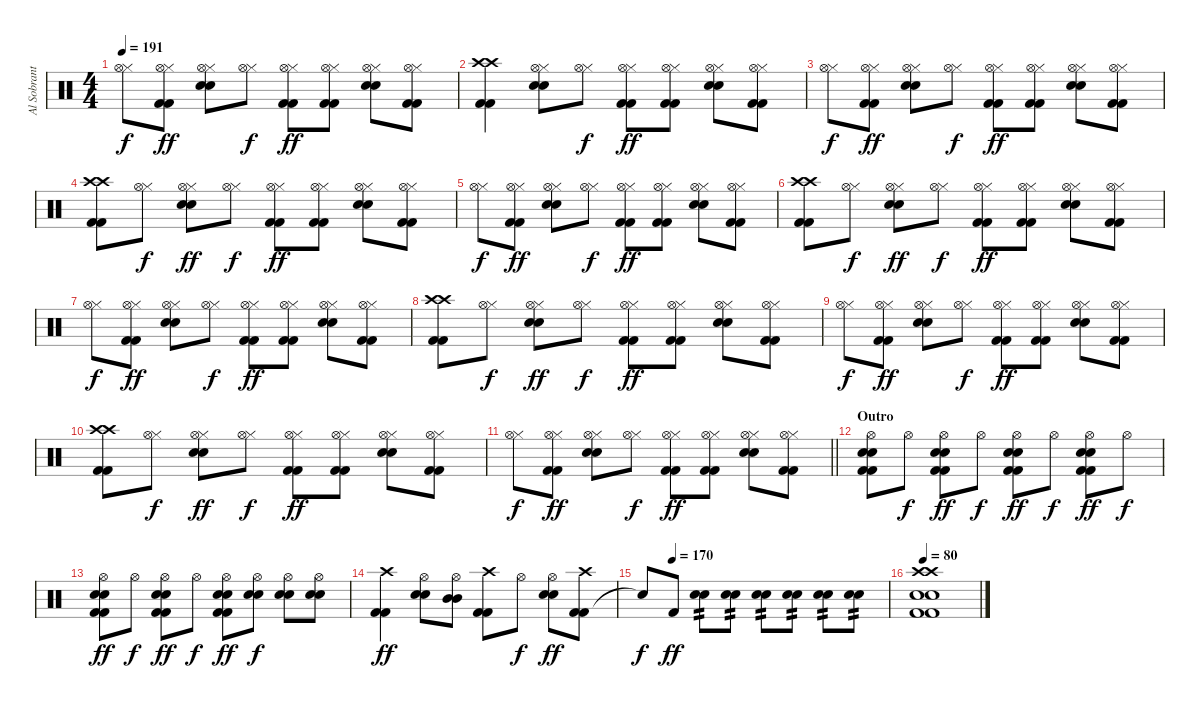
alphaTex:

\track ("Al Sobrante (Drums)" "Al Sobrant") {instrument percussion}
\staff {score}
\articulation defaults
\ts (4 4)
\tempo 191
\clef neutral
\ks c
("Hi-Hat (closed)" "Hi-Hat (open)").8{dy f} ("Kick (hit) 2" "Kick (hit) 2" "Hi-Hat (closed)" "Hi-Hat (open)").8{dy ff} ("Electric Snare (hit)" "Electric Snare (hit)" "Hi-Hat (closed)" "Hi-Hat (open)").8 ("Hi-Hat (closed)" "Hi-Hat (open)").8{dy f} ("Kick (hit) 2" "Kick (hit) 2" "Hi-Hat (closed)" "Hi-Hat (open)").8{dy ff} ("Kick (hit) 2" "Kick (hit) 2" "Hi-Hat (closed)" "Hi-Hat (open)").8 ("Electric Snare (hit)" "Electric Snare (hit)" "Hi-Hat (closed)" "Hi-Hat (open)").8 ("Kick (hit) 2" "Kick (hit) 2" "Hi-Hat (closed)" "Hi-Hat (open)").8 |
("Kick (hit) 2" "Kick (hit) 2" "Crash high (hit)" "Crash high (hit)").4 ("Electric Snare (hit)" "Electric Snare (hit)" "Hi-Hat (closed)" "Hi-Hat (open)").8 ("Hi-Hat (closed)" "Hi-Hat (open)").8{dy f} ("Kick (hit) 2" "Kick (hit) 2" "Hi-Hat (closed)" "Hi-Hat (open)").8{dy ff} ("Kick (hit) 2" "Kick (hit) 2" "Hi-Hat (closed)" "Hi-Hat (open)").8 ("Electric Snare (hit)" "Electric Snare (hit)" "Hi-Hat (closed)" "Hi-Hat (open)").8 ("Kick (hit) 2" "Kick (hit) 2" "Hi-Hat (closed)" "Hi-Hat (open)").8 |
("Hi-Hat (closed)" "Hi-Hat (open)").8{dy f} ("Kick (hit) 2" "Kick (hit) 2" "Hi-Hat (closed)" "Hi-Hat (open)").8{dy ff} ("Electric Snare (hit)" "Electric Snare (hit)" "Hi-Hat (closed)" "Hi-Hat (open)").8 ("Hi-Hat (closed)" "Hi-Hat (open)").8{dy f} ("Kick (hit) 2" "Kick (hit) 2" "Hi-Hat (closed)" "Hi-Hat (open)").8{dy ff} ("Kick (hit) 2" "Kick (hit) 2" "Hi-Hat (closed)" "Hi-Hat (open)").8 ("Electric Snare (hit)" "Electric Snare (hit)" "Hi-Hat (closed)" "Hi-Hat (open)").8 ("Kick (hit) 2" "Kick (hit) 2" "Hi-Hat (closed)" "Hi-Hat (open)").8 |
("Kick (hit) 2" "Kick (hit) 2" "Crash high (hit)" "Crash high (hit)").8 ("Hi-Hat (closed)" "Hi-Hat (open)").8{dy f} ("Electric Snare (hit)" "Electric Snare (hit)" "Hi-Hat (closed)" "Hi-Hat (open)").8{dy ff} ("Hi-Hat (closed)" "Hi-Hat (open)").8{dy f} ("Kick (hit) 2" "Kick (hit) 2" "Hi-Hat (closed)" "Hi-Hat (open)").8{dy ff} ("Kick (hit) 2" "Kick (hit) 2" "Hi-Hat (closed)" "Hi-Hat (open)").8 ("Electric Snare (hit)" "Electric Snare (hit)" "Hi-Hat (closed)" "Hi-Hat (open)").8 ("Kick (hit) 2" "Kick (hit) 2" "Hi-Hat (closed)" "Hi-Hat (open)").8 |
("Hi-Hat (closed)" "Hi-Hat (open)").8{dy f} ("Kick (hit) 2" "Kick (hit) 2" "Hi-Hat (closed)" "Hi-Hat (open)").8{dy ff} ("Electric Snare (hit)" "Electric Snare (hit)" "Hi-Hat (closed)" "Hi-Hat (open)").8 ("Hi-Hat (closed)" "Hi-Hat (open)").8{dy f} ("Kick (hit) 2" "Kick (hit) 2" "Hi-Hat (closed)" "Hi-Hat (open)").8{dy ff} ("Kick (hit) 2" "Kick (hit) 2" "Hi-Hat (closed)" "Hi-Hat (open)").8 ("Electric Snare (hit)" "Electric Snare (hit)" "Hi-Hat (closed)" "Hi-Hat (open)").8 ("Kick (hit) 2" "Kick (hit) 2" "Hi-Hat (closed)" "Hi-Hat (open)").8 |
("Kick (hit) 2" "Kick (hit) 2" "Crash high (hit)" "Crash high (hit)").8 ("Hi-Hat (closed)" "Hi-Hat (open)").8{dy f} ("Electric Snare (hit)" "Electric Snare (hit)" "Hi-Hat (closed)" "Hi-Hat (open)").8{dy ff} ("Hi-Hat (closed)" "Hi-Hat (open)").8{dy f} ("Kick (hit) 2" "Kick (hit) 2" "Hi-Hat (closed)" "Hi-Hat (open)").8{dy ff} ("Kick (hit) 2" "Kick (hit) 2" "Hi-Hat (closed)" "Hi-Hat (open)").8 ("Electric Snare (hit)" "Electric Snare (hit)" "Hi-Hat (closed)" "Hi-Hat (open)").8 ("Kick (hit) 2" "Kick (hit) 2" "Hi-Hat (closed)" "Hi-Hat (open)").8 |
("Hi-Hat (closed)" "Hi-Hat (open)").8{dy f} ("Kick (hit) 2" "Kick (hit) 2" "Hi-Hat (closed)" "Hi-Hat (open)").8{dy ff} ("Electric Snare (hit)" "Electric Snare (hit)" "Hi-Hat (closed)" "Hi-Hat (open)").8 ("Hi-Hat (closed)" "Hi-Hat (open)").8{dy f} ("Kick (hit) 2" "Kick (hit) 2" "Hi-Hat (closed)" "Hi-Hat (open)").8{dy ff} ("Kick (hit) 2" "Kick (hit) 2" "Hi-Hat (closed)" "Hi-Hat (open)").8 ("Electric Snare (hit)" "Electric Snare (hit)" "Hi-Hat (closed)" "Hi-Hat (open)").8 ("Kick (hit) 2" "Kick (hit) 2" "Hi-Hat (closed)" "Hi-Hat (open)").8 |
("Kick (hit) 2" "Kick (hit) 2" "Crash high (hit)" "Crash high (hit)").8 ("Hi-Hat (closed)" "Hi-Hat (open)").8{dy f} ("Electric Snare (hit)" "Electric Snare (hit)" "Hi-Hat (closed)" "Hi-Hat (open)").8{dy ff} ("Hi-Hat (closed)" "Hi-Hat (open)").8{dy f} ("Kick (hit) 2" "Kick (hit) 2" "Hi-Hat (closed)" "Hi-Hat (open)").8{dy ff} ("Kick (hit) 2" "Kick (hit) 2" "Hi-Hat (closed)" "Hi-Hat (open)").8 ("Electric Snare (hit)" "Electric Snare (hit)" "Hi-Hat (closed)" "Hi-Hat (open)").8 ("Kick (hit) 2" "Kick (hit) 2" "Hi-Hat (closed)" "Hi-Hat (open)").8 |
("Hi-Hat (closed)" "Hi-Hat (open)").8{dy f} ("Kick (hit) 2" "Kick (hit) 2" "Hi-Hat (closed)" "Hi-Hat (open)").8{dy ff} ("Electric Snare (hit)" "Electric Snare (hit)" "Hi-Hat (closed)" "Hi-Hat (open)").8 ("Hi-Hat (closed)" "Hi-Hat (open)").8{dy f} ("Kick (hit) 2" "Kick (hit) 2" "Hi-Hat (closed)" "Hi-Hat (open)").8{dy ff} ("Kick (hit) 2" "Kick (hit) 2" "Hi-Hat (closed)" "Hi-Hat (open)").8 ("Electric Snare (hit)" "Electric Snare (hit)" "Hi-Hat (closed)" "Hi-Hat (open)").8 ("Kick (hit) 2" "Kick (hit) 2" "Hi-Hat (closed)" "Hi-Hat (open)").8 |
("Kick (hit) 2" "Kick (hit) 2" "Crash high (hit)" "Crash high (hit)").8 ("Hi-Hat (closed)" "Hi-Hat (open)").8{dy f} ("Electric Snare (hit)" "Electric Snare (hit)" "Hi-Hat (closed)" "Hi-Hat (open)").8{dy ff} ("Hi-Hat (closed)" "Hi-Hat (open)").8{dy f} ("Kick (hit) 2" "Kick (hit) 2" "Hi-Hat (closed)" "Hi-Hat (open)").8{dy ff} ("Kick (hit) 2" "Kick (hit) 2" "Hi-Hat (closed)" "Hi-Hat (open)").8 ("Electric Snare (hit)" "Electric Snare (hit)" "Hi-Hat (closed)" "Hi-Hat (open)").8 ("Kick (hit) 2" "Kick (hit) 2" "Hi-Hat (closed)" "Hi-Hat (open)").8 |
\barLineRight lightlight
("Hi-Hat (closed)" "Hi-Hat (open)").8{dy f} ("Kick (hit) 2" "Kick (hit) 2" "Hi-Hat (closed)" "Hi-Hat (open)").8{dy ff} ("Electric Snare (hit)" "Electric Snare (hit)" "Hi-Hat (closed)" "Hi-Hat (open)").8 ("Hi-Hat (closed)" "Hi-Hat (open)").8{dy f} ("Kick (hit) 2" "Kick (hit) 2" "Hi-Hat (closed)" "Hi-Hat (open)").8{dy ff} ("Kick (hit) 2" "Kick (hit) 2" "Hi-Hat (closed)" "Hi-Hat (open)").8 ("Electric Snare (hit)" "Electric Snare (hit)" "Hi-Hat (closed)" "Hi-Hat (open)").8 ("Kick (hit) 2" "Kick (hit) 2" "Hi-Hat (closed)" "Hi-Hat (open)").8 |
\section ("" "Outro")
("Kick (hit) 2" "Kick (hit) 2" "Electric Snare (hit)" "Electric Snare (hit)" "Hi-Hat (open)").8 "Hi-Hat (open)".8{dy f} ("Kick (hit) 2" "Kick (hit) 2" "Electric Snare (hit)" "Electric Snare (hit)" "Hi-Hat (open)").8{dy ff} "Hi-Hat (open)".8{dy f} ("Kick (hit) 2" "Kick (hit) 2" "Electric Snare (hit)" "Electric Snare (hit)" "Hi-Hat (open)").8{dy ff} "Hi-Hat (open)".8{dy f} ("Kick (hit) 2" "Kick (hit) 2" "Electric Snare (hit)" "Electric Snare (hit)" "Hi-Hat (open)").8{dy ff} "Hi-Hat (open)".8{dy f} |
("Kick (hit) 2" "Kick (hit) 2" "Electric Snare (hit)" "Electric Snare (hit)" "Hi-Hat (open)").8{dy ff} "Hi-Hat (open)".8{dy f} ("Kick (hit) 2" "Kick (hit) 2" "Electric Snare (hit)" "Electric Snare (hit)" "Hi-Hat (open)").8{dy ff} "Hi-Hat (open)".8{dy f} ("Kick (hit) 2" "Kick (hit) 2" "Electric Snare (hit)" "Electric Snare (hit)" "Hi-Hat (open)").8{dy ff} ("Electric Snare (hit)" "Electric Snare (hit)" "Hi-Hat (open)").8{dy f} ("Electric Snare (hit)" "Electric Snare (hit)" "Hi-Hat (open)").8 ("Electric Snare (hit)" "Electric Snare (hit)" "Hi-Hat (open)").8 |
("Kick (hit) 2" "Kick (hit) 2" "Crash high (hit)").4{dy ff} ("Electric Snare (hit)" "Electric Snare (hit)" "Hi-Hat (open)").8 ("Mid Tom (hit)" "Mid Tom (hit)" "Hi-Hat (open)").8 ("Kick (hit) 2" "Kick (hit) 2" "Crash high (hit)").8 "Hi-Hat (open)".8{dy f} ("Electric Snare (hit)" "Electric Snare (hit)" "Hi-Hat (open)").8{dy ff} ("Kick (hit) 2" "Kick (hit) 2" "Crash high (hit)").8 |
\tempo (170 0.125)
"Snare (hit)"{t}.8{dy f} "Kick (hit) 2".8{dy ff} ("Snare (hit) 2" "Snare (hit) 2").8{tp 2} ("Snare (hit) 2" "Snare (hit) 2").8{tp 2} ("Snare (hit) 2" "Snare (hit) 2").8{tp 2} ("Snare (hit) 2" "Snare (hit) 2").8{tp 2} ("Snare (hit) 2" "Snare (hit) 2").8{tp 2} ("Snare (hit) 2" "Snare (hit) 2").8{tp 2} |
\tempo 80
("Kick (hit) 2" "Kick (hit) 2" "Electric Snare (hit)" "Electric Snare (hit)" "Crash high (hit)" "Crash high (hit)").1
